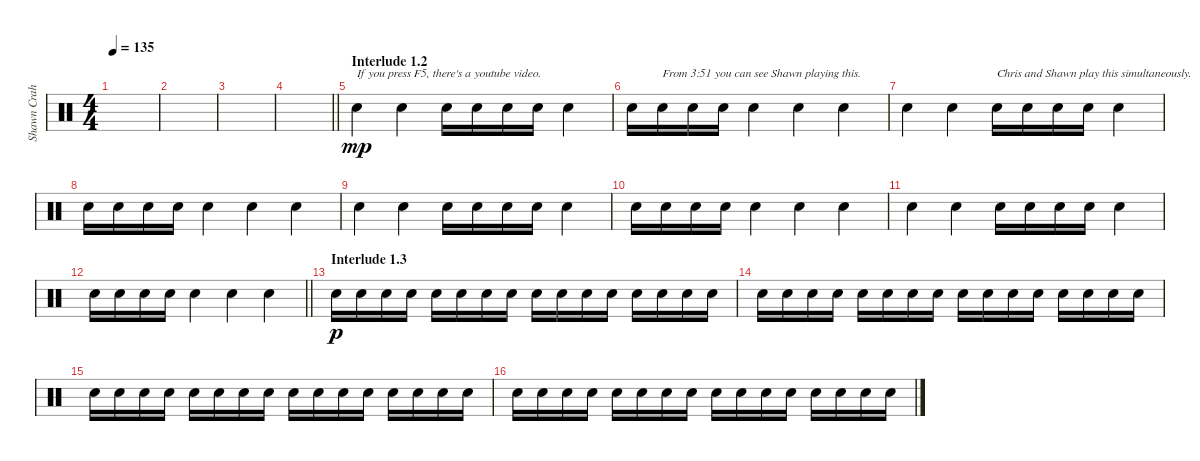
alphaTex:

\track ("Shawn Crahan" "Shawn Crah") {instrument percussion}
\staff {score}
\articulation defaults
\ts (4 4)
\tempo 135
\clef neutral
\ks c
|
|
|
\barLineRight lightlight
|
\section ("" "Interlude 1.2")
"Snare (hit) 2".4{txt "If you press F5, there's a youtube video." dy mp} "Snare (hit) 2".4 "Snare (hit) 2".16 "Snare (hit) 2".16 "Snare (hit) 2".16 "Snare (hit) 2".16 "Snare (hit) 2".4 |
"Snare (hit) 2".16 "Snare (hit) 2".16{txt "From 3:51 you can see Shawn playing this."} "Snare (hit) 2".16 "Snare (hit) 2".16 "Snare (hit) 2".4 "Snare (hit) 2".4 "Snare (hit) 2".4 |
"Snare (hit) 2".4 "Snare (hit) 2".4 "Snare (hit) 2".16{txt "Chris and Shawn play this simultaneously."} "Snare (hit) 2".16 "Snare (hit) 2".16 "Snare (hit) 2".16 "Snare (hit) 2".4 |
"Snare (hit) 2".16 "Snare (hit) 2".16 "Snare (hit) 2".16 "Snare (hit) 2".16 "Snare (hit) 2".4 "Snare (hit) 2".4 "Snare (hit) 2".4 |
"Snare (hit) 2".4 "Snare (hit) 2".4 "Snare (hit) 2".16 "Snare (hit) 2".16 "Snare (hit) 2".16 "Snare (hit) 2".16 "Snare (hit) 2".4 |
"Snare (hit) 2".16 "Snare (hit) 2".16 "Snare (hit) 2".16 "Snare (hit) 2".16 "Snare (hit) 2".4 "Snare (hit) 2".4 "Snare (hit) 2".4 |
"Snare (hit) 2".4 "Snare (hit) 2".4 "Snare (hit) 2".16 "Snare (hit) 2".16 "Snare (hit) 2".16 "Snare (hit) 2".16 "Snare (hit) 2".4 |
\barLineRight lightlight "Snare (hit) 2".16 "Snare (hit) 2".16 "Snare (hit) 2".16 "Snare (hit) 2".16 "Snare (hit) 2".4 "Snare (hit) 2".4 "Snare (hit) 2".4
|
\section ("" "Interlude 1.3")
"Snare (hit) 2".16{dy p} "Snare (hit) 2".16 "Snare (hit) 2".16 "Snare (hit) 2".16 "Snare (hit) 2".16 "Snare (hit) 2".16 "Snare (hit) 2".16 "Snare (hit) 2".16 "Snare (hit) 2".16 "Snare (hit) 2".16 "Snare (hit) 2".16 "Snare (hit) 2".16 "Snare (hit) 2".16 "Snare (hit) 2".16 "Snare (hit) 2".16 "Snare (hit) 2".16 |
"Snare (hit) 2".16 "Snare (hit) 2".16 "Snare (hit) 2".16 "Snare (hit) 2".16 "Snare (hit) 2".16 "Snare (hit) 2".16 "Snare (hit) 2".16 "Snare (hit) 2".16 "Snare (hit) 2".16 "Snare (hit) 2".16 "Snare (hit) 2".16 "Snare (hit) 2".16 "Snare (hit) 2".16 "Snare (hit) 2".16 "Snare (hit) 2".16 "Snare (hit) 2".16 |
"Snare (hit) 2".16 "Snare (hit) 2".16 "Snare (hit) 2".16 "Snare (hit) 2".16 "Snare (hit) 2".16 "Snare (hit) 2".16 "Snare (hit) 2".16 "Snare (hit) 2".16 "Snare (hit) 2".16 "Snare (hit) 2".16 "Snare (hit) 2".16 "Snare (hit) 2".16 "Snare (hit) 2".16 "Snare (hit) 2".16 "Snare (hit) 2".16 "Snare (hit) 2".16 |
"Snare (hit) 2".16 "Snare (hit) 2".16 "Snare (hit) 2".16 "Snare (hit) 2".16 "Snare (hit) 2".16 "Snare (hit) 2".16 "Snare (hit) 2".16 "Snare (hit) 2".16 "Snare (hit) 2".16 "Snare (hit) 2".16 "Snare (hit) 2".16 "Snare (hit) 2".16 "Snare (hit) 2".16 "Snare (hit) 2".16 "Snare (hit) 2".16 "Snare (hit) 2".16
